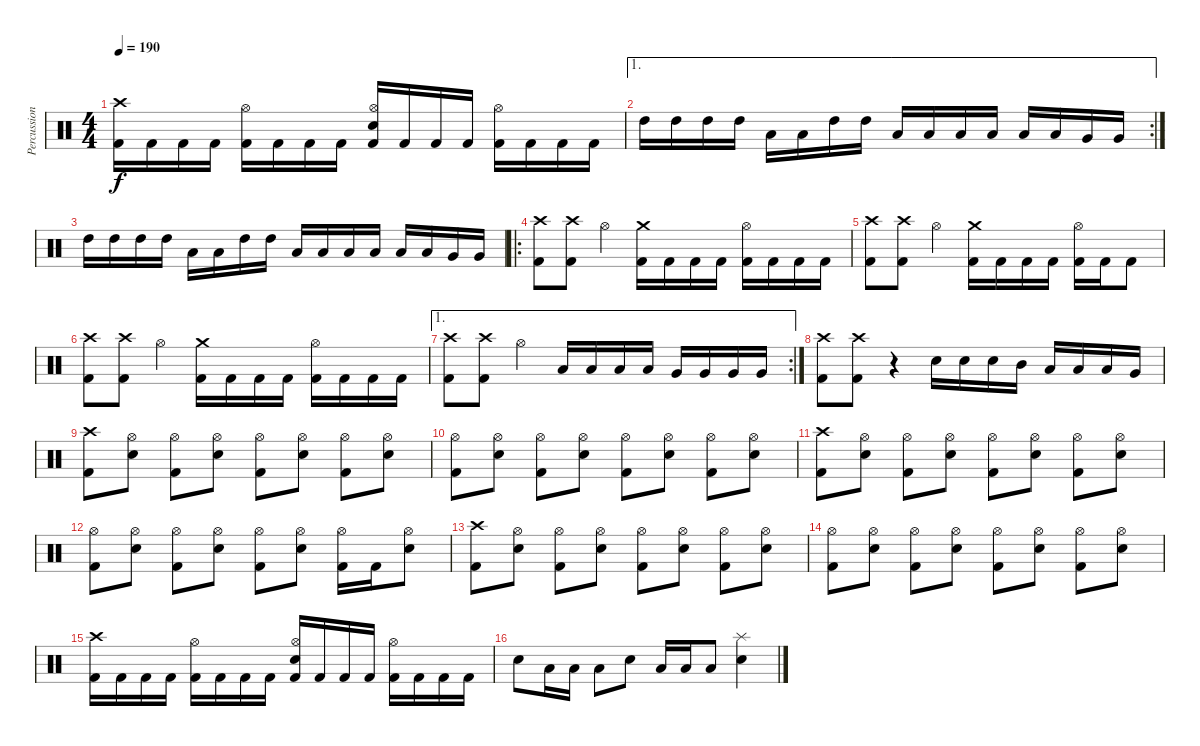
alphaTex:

\track ("Percussion" "Percussion") {instrument percussion}
\staff {score}
\articulation defaults
\ts (4 4)
\tempo 190
\clef neutral
\ks c
("Crash high (hit)" "Kick (hit) 2").16{dy f} "Kick (hit) 2".16 "Kick (hit) 2".16 "Kick (hit) 2".16 ("Hi-Hat (open)" "Kick (hit) 2").16 "Kick (hit) 2".16 "Kick (hit) 2".16 "Kick (hit) 2".16 ("Hi-Hat (open)" "Snare (hit) 2" "Kick (hit) 2").16 "Kick (hit) 2".16 "Kick (hit) 2".16 "Kick (hit) 2".16 ("Hi-Hat (open)" "Kick (hit) 2").16 "Kick (hit) 2".16 "Kick (hit) 2".16 "Kick (hit) 2".16 |
\ae 1
\rc 2 "High Tom (hit)".16 "High Tom (hit)".16 "High Tom (hit)".16 "High Tom (hit)".16 "Low Tom (hit)".16 "Low Tom (hit)".16 "High Tom (hit)".16 "High Tom (hit)".16 "Low Tom (hit)".16 "Low Tom (hit)".16 "Low Tom (hit)".16 "Low Tom (hit)".16 "Low Tom (hit)".16 "Low Tom (hit)".16 "Very Low Tom (hit)".16 "Very Low Tom (hit)".16
|
"High Tom (hit)".16 "High Tom (hit)".16 "High Tom (hit)".16 "High Tom (hit)".16 "Low Tom (hit)".16 "Low Tom (hit)".16 "High Tom (hit)".16 "High Tom (hit)".16 "Low Tom (hit)".16 "Low Tom (hit)".16 "Low Tom (hit)".16 "Low Tom (hit)".16 "Low Tom (hit)".16 "Low Tom (hit)".16 "Very Low Tom (hit)".16 "Very Low Tom (hit)".16 |
\ro
("Crash high (hit)" "Kick (hit) 2").8 ("Crash high (hit)" "Kick (hit) 2").8 "Hi-Hat (open)".4 ("Crash medium (hit)" "Kick (hit) 2").16 "Kick (hit) 2".16 "Kick (hit) 2".16 "Kick (hit) 2".16 ("Hi-Hat (open)" "Kick (hit) 2").16 "Kick (hit) 2".16 "Kick (hit) 2".16 "Kick (hit) 2".16 |
("Crash high (hit)" "Kick (hit) 2").8 ("Crash high (hit)" "Kick (hit) 2").8 "Hi-Hat (open)".4 ("Crash medium (hit)" "Kick (hit) 2").16 "Kick (hit) 2".16 "Kick (hit) 2".16 "Kick (hit) 2".16 ("Hi-Hat (open)" "Kick (hit) 2").16 "Kick (hit) 2".16 "Kick (hit) 2".8 |
("Crash high (hit)" "Kick (hit) 2").8 ("Crash high (hit)" "Kick (hit) 2").8 "Hi-Hat (open)".4 ("Crash medium (hit)" "Kick (hit) 2").16 "Kick (hit) 2".16 "Kick (hit) 2".16 "Kick (hit) 2".16 ("Hi-Hat (open)" "Kick (hit) 2").16 "Kick (hit) 2".16 "Kick (hit) 2".16 "Kick (hit) 2".16 |
\ae 1
\rc 2
("Crash high (hit)" "Kick (hit) 2").8 ("Crash high (hit)" "Kick (hit) 2").8 "Hi-Hat (open)".4 "Low Tom (hit)".16 "Low Tom (hit)".16 "Low Tom (hit)".16 "Low Tom (hit)".16 "Very Low Tom (hit)".16 "Very Low Tom (hit)".16 "Very Low Tom (hit)".16 "Very Low Tom (hit)".16 |
("Crash high (hit)" "Kick (hit) 2").8 ("Crash high (hit)" "Kick (hit) 2").8 r.4 "Snare (hit) 2".16 "Snare (hit) 2".16 "Snare (hit) 2".16 "Mid Tom (hit)".16 "Low Tom (hit)".16 "Low Tom (hit)".16 "Low Tom (hit)".16 "Very Low Tom (hit)".16 |
("Crash high (hit)" "Kick (hit) 2").8 ("Hi-Hat (open)" "Snare (hit) 2").8 ("Hi-Hat (open)" "Kick (hit) 2").8 ("Hi-Hat (open)" "Snare (hit) 2").8 ("Hi-Hat (open)" "Kick (hit) 2").8 ("Hi-Hat (open)" "Snare (hit) 2").8 ("Hi-Hat (open)" "Kick (hit) 2").8 ("Hi-Hat (open)" "Snare (hit) 2").8 |
("Hi-Hat (open)" "Kick (hit) 2").8 ("Hi-Hat (open)" "Snare (hit) 2").8 ("Hi-Hat (open)" "Kick (hit) 2").8 ("Hi-Hat (open)" "Snare (hit) 2").8 ("Hi-Hat (open)" "Kick (hit) 2").8 ("Hi-Hat (open)" "Snare (hit) 2").8 ("Hi-Hat (open)" "Kick (hit) 2").8 ("Hi-Hat (open)" "Snare (hit) 2").8 |
("Crash high (hit)" "Kick (hit) 2").8 ("Hi-Hat (open)" "Snare (hit) 2").8 ("Hi-Hat (open)" "Kick (hit) 2").8 ("Hi-Hat (open)" "Snare (hit) 2").8 ("Hi-Hat (open)" "Kick (hit) 2").8 ("Hi-Hat (open)" "Snare (hit) 2").8 ("Hi-Hat (open)" "Kick (hit) 2").8 ("Hi-Hat (open)" "Snare (hit) 2").8 |
("Hi-Hat (open)" "Kick (hit) 2").8 ("Hi-Hat (open)" "Snare (hit) 2").8 ("Hi-Hat (open)" "Kick (hit) 2").8 ("Hi-Hat (open)" "Snare (hit) 2").8 ("Hi-Hat (open)" "Kick (hit) 2").8 ("Hi-Hat (open)" "Snare (hit) 2").8 ("Hi-Hat (open)" "Kick (hit) 2").16 "Kick (hit) 2".16 ("Hi-Hat (open)" "Snare (hit) 2").8 |
("Crash high (hit)" "Kick (hit) 2").8 ("Hi-Hat (open)" "Snare (hit) 2").8 ("Hi-Hat (open)" "Kick (hit) 2").8 ("Hi-Hat (open)" "Snare (hit) 2").8 ("Hi-Hat (open)" "Kick (hit) 2").8 ("Hi-Hat (open)" "Snare (hit) 2").8 ("Hi-Hat (open)" "Kick (hit) 2").8 ("Hi-Hat (open)" "Snare (hit) 2").8 |
("Hi-Hat (open)" "Kick (hit) 2").8 ("Hi-Hat (open)" "Snare (hit) 2").8 ("Hi-Hat (open)" "Kick (hit) 2").8 ("Hi-Hat (open)" "Snare (hit) 2").8 ("Hi-Hat (open)" "Kick (hit) 2").8 ("Hi-Hat (open)" "Snare (hit) 2").8 ("Hi-Hat (open)" "Kick (hit) 2").8 ("Hi-Hat (open)" "Snare (hit) 2").8 |
("Crash high (hit)" "Kick (hit) 2").16 "Kick (hit) 2".16 "Kick (hit) 2".16 "Kick (hit) 2".16 ("Hi-Hat (open)" "Kick (hit) 2").16 "Kick (hit) 2".16 "Kick (hit) 2".16 "Kick (hit) 2".16 ("Hi-Hat (open)" "Snare (hit) 2" "Kick (hit) 2").16 "Kick (hit) 2".16 "Kick (hit) 2".16 "Kick (hit) 2".16 ("Hi-Hat (open)" "Kick (hit) 2").16 "Kick (hit) 2".16 "Kick (hit) 2".16 "Kick (hit) 2".16 |
"Snare (hit) 2".8 "Low Tom (hit)".16 "Low Tom (hit)".16 "Low Tom (hit)".8 "Snare (hit) 2".8 "Low Tom (hit)".16 "Low Tom (hit)".16 "Low Tom (hit)".8 ("Splash (hit)" "Snare (hit) 2").4
